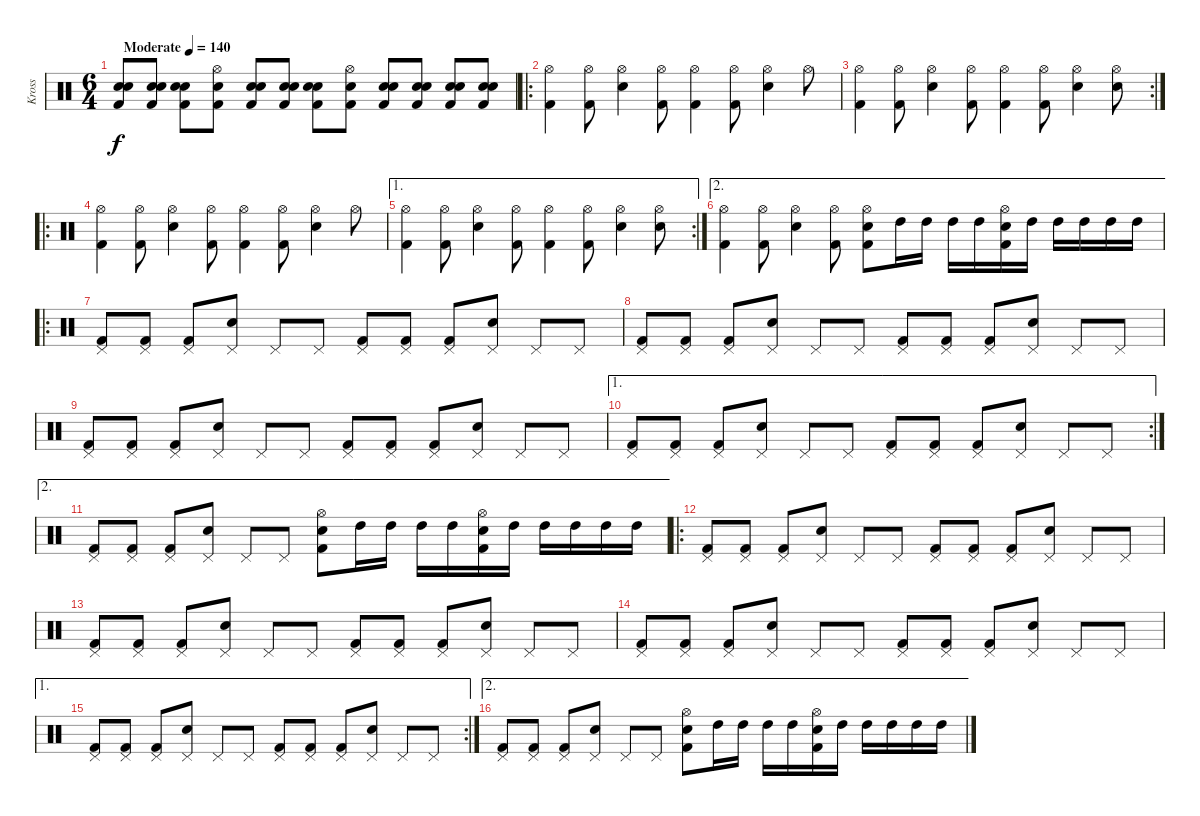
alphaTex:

\track ("Kross" "Kross") {instrument percussion}
\staff {score}
\articulation defaults
\ts (6 4)
\tempo (140 "Moderate")
\clef neutral
\ks c
("Snare (hit) 2" "Electric Snare (hit)" "Kick (hit) 2").8{dy f} ("Electric Snare (hit)" "Electric Snare (hit)" "Kick (hit) 2").8 ("Snare (hit) 2" "Electric Snare (hit)" "Kick (hit) 2").8 ("Hi-Hat (open)" "Electric Snare (hit)" "Kick (hit) 2").8 ("Snare (hit) 2" "Electric Snare (hit)" "Kick (hit) 2").8 ("Electric Snare (hit)" "Electric Snare (hit)" "Kick (hit) 2").8 ("Snare (hit) 2" "Electric Snare (hit)" "Kick (hit) 2").8 ("Hi-Hat (open)" "Electric Snare (hit)" "Kick (hit) 2").8 ("Snare (hit) 2" "Electric Snare (hit)" "Kick (hit) 2").8 ("Snare (hit) 2" "Electric Snare (hit)" "Kick (hit) 2").8 ("Snare (hit) 2" "Electric Snare (hit)" "Kick (hit) 2").8 ("Snare (hit) 2" "Electric Snare (hit)" "Kick (hit) 2").8 |
\ro
("Hi-Hat (open)" "Kick (hit) 2").4 ("Hi-Hat (open)" "Kick (hit) 2").8 ("Hi-Hat (open)" "Electric Snare (hit)").4 ("Hi-Hat (open)" "Kick (hit) 2").8 ("Hi-Hat (open)" "Kick (hit) 2").4 ("Hi-Hat (open)" "Kick (hit) 2").8 ("Hi-Hat (open)" "Electric Snare (hit)").4 "Hi-Hat (open)".8 |
\rc 2
("Hi-Hat (open)" "Kick (hit) 2").4 ("Hi-Hat (open)" "Kick (hit) 2").8 ("Hi-Hat (open)" "Electric Snare (hit)").4 ("Hi-Hat (open)" "Kick (hit) 2").8 ("Hi-Hat (open)" "Kick (hit) 2").4 ("Hi-Hat (open)" "Kick (hit) 2").8 ("Hi-Hat (open)" "Electric Snare (hit)").4 ("Hi-Hat (open)" "Electric Snare (hit)").8 |
\ro
("Hi-Hat (open)" "Kick (hit) 2").4 ("Hi-Hat (open)" "Kick (hit) 2").8 ("Hi-Hat (open)" "Electric Snare (hit)").4 ("Hi-Hat (open)" "Kick (hit) 2").8 ("Hi-Hat (open)" "Kick (hit) 2").4 ("Hi-Hat (open)" "Kick (hit) 2").8 ("Hi-Hat (open)" "Electric Snare (hit)").4 "Hi-Hat (open)".8 |
\ae 1
\rc 2
("Hi-Hat (open)" "Kick (hit) 2").4 ("Hi-Hat (open)" "Kick (hit) 2").8 ("Hi-Hat (open)" "Electric Snare (hit)").4 ("Hi-Hat (open)" "Kick (hit) 2").8 ("Hi-Hat (open)" "Kick (hit) 2").4 ("Hi-Hat (open)" "Kick (hit) 2").8 ("Hi-Hat (open)" "Electric Snare (hit)").4 ("Hi-Hat (open)" "Electric Snare (hit)").8 |
\ae 2
("Hi-Hat (open)" "Kick (hit) 2").4 ("Hi-Hat (open)" "Kick (hit) 2").8 ("Hi-Hat (open)" "Electric Snare (hit)").4 ("Hi-Hat (open)" "Kick (hit) 2").8 ("Hi-Hat (open)" "Electric Snare (hit)" "Kick (hit) 2").8 "High Tom (hit)".16 "High Tom (hit)".16 "High Tom (hit)".16 "High Tom (hit)".16 ("Hi-Hat (open)" "Electric Snare (hit)" "Kick (hit) 2").16 "High Tom (hit)".16 "High Tom (hit)".16 "High Tom (hit)".16 "High Tom (hit)".16 "High Tom (hit)".16 |
\ro
("Pedal Hi-Hat (hit)" "Kick (hit) 2").8 ("Pedal Hi-Hat (hit)" "Kick (hit) 2").8 ("Pedal Hi-Hat (hit)" "Kick (hit) 2").8 ("Pedal Hi-Hat (hit)" "Electric Snare (hit)").8 "Pedal Hi-Hat (hit)".8 "Pedal Hi-Hat (hit)".8 ("Pedal Hi-Hat (hit)" "Kick (hit) 2").8 ("Pedal Hi-Hat (hit)" "Kick (hit) 2").8 ("Pedal Hi-Hat (hit)" "Kick (hit) 2").8 ("Pedal Hi-Hat (hit)" "Electric Snare (hit)").8 "Pedal Hi-Hat (hit)".8 "Pedal Hi-Hat (hit)".8 |
("Pedal Hi-Hat (hit)" "Kick (hit) 2").8 ("Pedal Hi-Hat (hit)" "Kick (hit) 2").8 ("Pedal Hi-Hat (hit)" "Kick (hit) 2").8 ("Pedal Hi-Hat (hit)" "Electric Snare (hit)").8 "Pedal Hi-Hat (hit)".8 "Pedal Hi-Hat (hit)".8 ("Pedal Hi-Hat (hit)" "Kick (hit) 2").8 ("Pedal Hi-Hat (hit)" "Kick (hit) 2").8 ("Pedal Hi-Hat (hit)" "Kick (hit) 2").8 ("Pedal Hi-Hat (hit)" "Electric Snare (hit)").8 "Pedal Hi-Hat (hit)".8 "Pedal Hi-Hat (hit)".8 |
("Pedal Hi-Hat (hit)" "Kick (hit) 2").8 ("Pedal Hi-Hat (hit)" "Kick (hit) 2").8 ("Pedal Hi-Hat (hit)" "Kick (hit) 2").8 ("Pedal Hi-Hat (hit)" "Electric Snare (hit)").8 "Pedal Hi-Hat (hit)".8 "Pedal Hi-Hat (hit)".8 ("Pedal Hi-Hat (hit)" "Kick (hit) 2").8 ("Pedal Hi-Hat (hit)" "Kick (hit) 2").8 ("Pedal Hi-Hat (hit)" "Kick (hit) 2").8 ("Pedal Hi-Hat (hit)" "Electric Snare (hit)").8 "Pedal Hi-Hat (hit)".8 "Pedal Hi-Hat (hit)".8 |
\ae 1
\rc 2
("Pedal Hi-Hat (hit)" "Kick (hit) 2").8 ("Pedal Hi-Hat (hit)" "Kick (hit) 2").8 ("Pedal Hi-Hat (hit)" "Kick (hit) 2").8 ("Pedal Hi-Hat (hit)" "Electric Snare (hit)").8 "Pedal Hi-Hat (hit)".8 "Pedal Hi-Hat (hit)".8 ("Pedal Hi-Hat (hit)" "Kick (hit) 2").8 ("Pedal Hi-Hat (hit)" "Kick (hit) 2").8 ("Pedal Hi-Hat (hit)" "Kick (hit) 2").8 ("Pedal Hi-Hat (hit)" "Electric Snare (hit)").8 "Pedal Hi-Hat (hit)".8 "Pedal Hi-Hat (hit)".8 |
\ae 2
("Pedal Hi-Hat (hit)" "Kick (hit) 2").8 ("Pedal Hi-Hat (hit)" "Kick (hit) 2").8 ("Pedal Hi-Hat (hit)" "Kick (hit) 2").8 ("Pedal Hi-Hat (hit)" "Electric Snare (hit)").8 "Pedal Hi-Hat (hit)".8 "Pedal Hi-Hat (hit)".8 ("Hi-Hat (open)" "Electric Snare (hit)" "Kick (hit) 2").8 "High Tom (hit)".16 "High Tom (hit)".16 "High Tom (hit)".16 "High Tom (hit)".16 ("Hi-Hat (open)" "Electric Snare (hit)" "Kick (hit) 2").16 "High Tom (hit)".16 "High Tom (hit)".16 "High Tom (hit)".16 "High Tom (hit)".16 "High Tom (hit)".16 |
\ro
("Pedal Hi-Hat (hit)" "Kick (hit) 2").8 ("Pedal Hi-Hat (hit)" "Kick (hit) 2").8 ("Pedal Hi-Hat (hit)" "Kick (hit) 2").8 ("Pedal Hi-Hat (hit)" "Electric Snare (hit)").8 "Pedal Hi-Hat (hit)".8 "Pedal Hi-Hat (hit)".8 ("Pedal Hi-Hat (hit)" "Kick (hit) 2").8 ("Pedal Hi-Hat (hit)" "Kick (hit) 2").8 ("Pedal Hi-Hat (hit)" "Kick (hit) 2").8 ("Pedal Hi-Hat (hit)" "Electric Snare (hit)").8 "Pedal Hi-Hat (hit)".8 "Pedal Hi-Hat (hit)".8 |
("Pedal Hi-Hat (hit)" "Kick (hit) 2").8 ("Pedal Hi-Hat (hit)" "Kick (hit) 2").8 ("Pedal Hi-Hat (hit)" "Kick (hit) 2").8 ("Pedal Hi-Hat (hit)" "Electric Snare (hit)").8 "Pedal Hi-Hat (hit)".8 "Pedal Hi-Hat (hit)".8 ("Pedal Hi-Hat (hit)" "Kick (hit) 2").8 ("Pedal Hi-Hat (hit)" "Kick (hit) 2").8 ("Pedal Hi-Hat (hit)" "Kick (hit) 2").8 ("Pedal Hi-Hat (hit)" "Electric Snare (hit)").8 "Pedal Hi-Hat (hit)".8 "Pedal Hi-Hat (hit)".8 |
("Pedal Hi-Hat (hit)" "Kick (hit) 2").8 ("Pedal Hi-Hat (hit)" "Kick (hit) 2").8 ("Pedal Hi-Hat (hit)" "Kick (hit) 2").8 ("Pedal Hi-Hat (hit)" "Electric Snare (hit)").8 "Pedal Hi-Hat (hit)".8 "Pedal Hi-Hat (hit)".8 ("Pedal Hi-Hat (hit)" "Kick (hit) 2").8 ("Pedal Hi-Hat (hit)" "Kick (hit) 2").8 ("Pedal Hi-Hat (hit)" "Kick (hit) 2").8 ("Pedal Hi-Hat (hit)" "Electric Snare (hit)").8 "Pedal Hi-Hat (hit)".8 "Pedal Hi-Hat (hit)".8 |
\ae 1
\rc 2
("Pedal Hi-Hat (hit)" "Kick (hit) 2").8 ("Pedal Hi-Hat (hit)" "Kick (hit) 2").8 ("Pedal Hi-Hat (hit)" "Kick (hit) 2").8 ("Pedal Hi-Hat (hit)" "Electric Snare (hit)").8 "Pedal Hi-Hat (hit)".8 "Pedal Hi-Hat (hit)".8 ("Pedal Hi-Hat (hit)" "Kick (hit) 2").8 ("Pedal Hi-Hat (hit)" "Kick (hit) 2").8 ("Pedal Hi-Hat (hit)" "Kick (hit) 2").8 ("Pedal Hi-Hat (hit)" "Electric Snare (hit)").8 "Pedal Hi-Hat (hit)".8 "Pedal Hi-Hat (hit)".8 |
\ae 2
("Pedal Hi-Hat (hit)" "Kick (hit) 2").8 ("Pedal Hi-Hat (hit)" "Kick (hit) 2").8 ("Pedal Hi-Hat (hit)" "Kick (hit) 2").8 ("Pedal Hi-Hat (hit)" "Electric Snare (hit)").8 "Pedal Hi-Hat (hit)".8 "Pedal Hi-Hat (hit)".8 ("Hi-Hat (open)" "Electric Snare (hit)" "Kick (hit) 2").8 "High Tom (hit)".16 "High Tom (hit)".16 "High Tom (hit)".16 "High Tom (hit)".16 ("Hi-Hat (open)" "Electric Snare (hit)" "Kick (hit) 2").16 "High Tom (hit)".16 "High Tom (hit)".16 "High Tom (hit)".16 "High Tom (hit)".16 "High Tom (hit)".16
